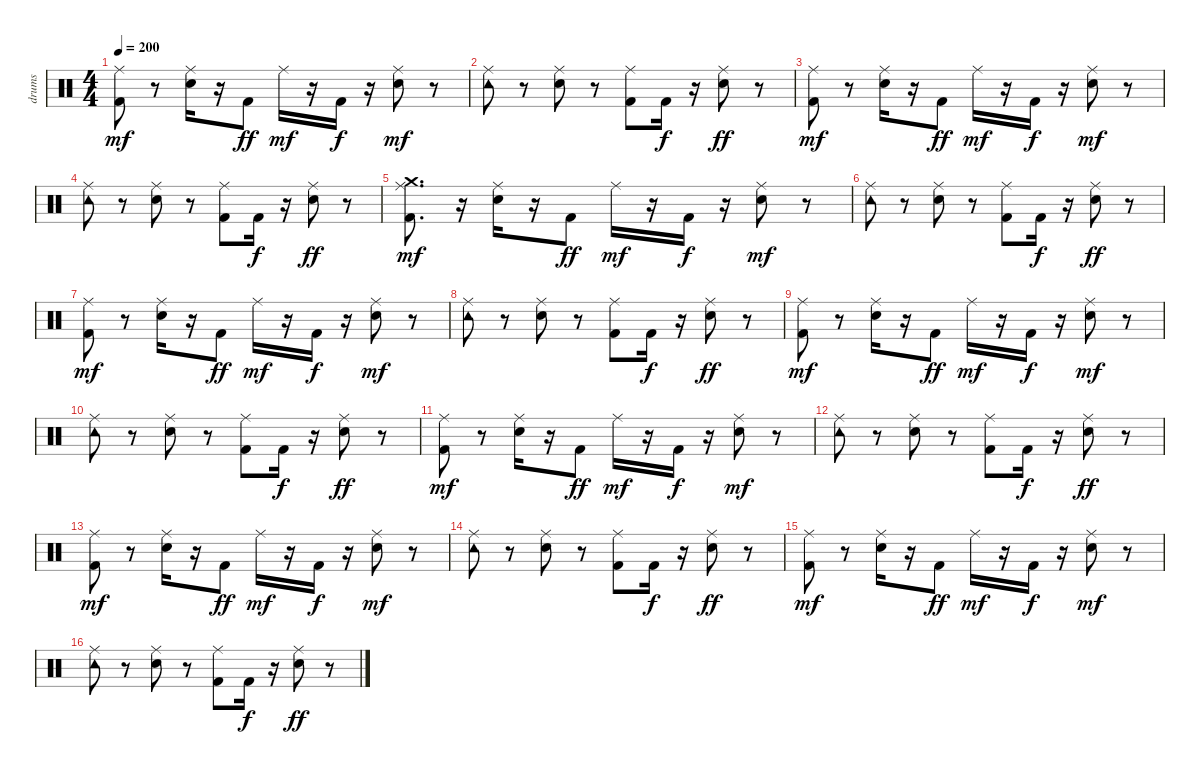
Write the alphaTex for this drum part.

\track ("drums" "drums") {instrument percussion}
\staff {score}
\articulation defaults
\ts (4 4)
\tempo 200
\clef neutral
\ks c
("Kick (hit) 2" "Ride (middle)").8{dy mf} r.8 ("Snare (hit) 2" "Ride (middle)").16 r.16 "Kick (hit) 2".8{dy ff} "Ride (middle)".16{dy mf} r.16 "Kick (hit) 2".16{dy f} r.16 ("Snare (hit) 2" "Ride (middle)").8{dy mf} r.8 |
("Tambourine (hit)" "Ride (middle)").8 r.8 ("Snare (hit) 2" "Ride (middle)").8 r.8 ("Kick (hit) 2" "Ride (middle)").8 "Kick (hit) 2".16{dy f} r.16 ("Snare (hit) 2" "Ride (middle)").8{dy ff} r.8 |
("Kick (hit) 2" "Ride (middle)").8{dy mf} r.8 ("Snare (hit) 2" "Ride (middle)").16 r.16 "Kick (hit) 2".8{dy ff} "Ride (middle)".16{dy mf} r.16 "Kick (hit) 2".16{dy f} r.16 ("Snare (hit) 2" "Ride (middle)").8{dy mf} r.8 |
("Tambourine (hit)" "Ride (middle)").8 r.8 ("Snare (hit) 2" "Ride (middle)").8 r.8 ("Kick (hit) 2" "Ride (middle)").8 "Kick (hit) 2".16{dy f} r.16 ("Snare (hit) 2" "Ride (middle)").8{dy ff} r.8 |
("Kick (hit) 2" "Ride (middle)" "Crash medium (hit)").8{d dy mf} r.16 ("Snare (hit) 2" "Ride (middle)").16 r.16 "Kick (hit) 2".8{dy ff} "Ride (middle)".16{dy mf} r.16 "Kick (hit) 2".16{dy f} r.16 ("Snare (hit) 2" "Ride (middle)").8{dy mf} r.8 |
("Tambourine (hit)" "Ride (middle)").8 r.8 ("Snare (hit) 2" "Ride (middle)").8 r.8 ("Kick (hit) 2" "Ride (middle)").8 "Kick (hit) 2".16{dy f} r.16 ("Snare (hit) 2" "Ride (middle)").8{dy ff} r.8 |
("Kick (hit) 2" "Ride (middle)").8{dy mf} r.8 ("Snare (hit) 2" "Ride (middle)").16 r.16 "Kick (hit) 2".8{dy ff} "Ride (middle)".16{dy mf} r.16 "Kick (hit) 2".16{dy f} r.16 ("Snare (hit) 2" "Ride (middle)").8{dy mf} r.8 |
("Tambourine (hit)" "Ride (middle)").8 r.8 ("Snare (hit) 2" "Ride (middle)").8 r.8 ("Kick (hit) 2" "Ride (middle)").8 "Kick (hit) 2".16{dy f} r.16 ("Snare (hit) 2" "Ride (middle)").8{dy ff} r.8 |
("Kick (hit) 2" "Ride (middle)").8{dy mf} r.8 ("Snare (hit) 2" "Ride (middle)").16 r.16 "Kick (hit) 2".8{dy ff} "Ride (middle)".16{dy mf} r.16 "Kick (hit) 2".16{dy f} r.16 ("Snare (hit) 2" "Ride (middle)").8{dy mf} r.8 |
("Tambourine (hit)" "Ride (middle)").8 r.8 ("Snare (hit) 2" "Ride (middle)").8 r.8 ("Kick (hit) 2" "Ride (middle)").8 "Kick (hit) 2".16{dy f} r.16 ("Snare (hit) 2" "Ride (middle)").8{dy ff} r.8 |
("Kick (hit) 2" "Ride (middle)").8{dy mf} r.8 ("Snare (hit) 2" "Ride (middle)").16 r.16 "Kick (hit) 2".8{dy ff} "Ride (middle)".16{dy mf} r.16 "Kick (hit) 2".16{dy f} r.16 ("Snare (hit) 2" "Ride (middle)").8{dy mf} r.8 |
("Tambourine (hit)" "Ride (middle)").8 r.8 ("Snare (hit) 2" "Ride (middle)").8 r.8 ("Kick (hit) 2" "Ride (middle)").8 "Kick (hit) 2".16{dy f} r.16 ("Snare (hit) 2" "Ride (middle)").8{dy ff} r.8 |
("Kick (hit) 2" "Ride (middle)").8{dy mf} r.8 ("Snare (hit) 2" "Ride (middle)").16 r.16 "Kick (hit) 2".8{dy ff} "Ride (middle)".16{dy mf} r.16 "Kick (hit) 2".16{dy f} r.16 ("Snare (hit) 2" "Ride (middle)").8{dy mf} r.8 |
("Tambourine (hit)" "Ride (middle)").8 r.8 ("Snare (hit) 2" "Ride (middle)").8 r.8 ("Kick (hit) 2" "Ride (middle)").8 "Kick (hit) 2".16{dy f} r.16 ("Snare (hit) 2" "Ride (middle)").8{dy ff} r.8 |
("Kick (hit) 2" "Ride (middle)").8{dy mf} r.8 ("Snare (hit) 2" "Ride (middle)").16 r.16 "Kick (hit) 2".8{dy ff} "Ride (middle)".16{dy mf} r.16 "Kick (hit) 2".16{dy f} r.16 ("Snare (hit) 2" "Ride (middle)").8{dy mf} r.8 |
("Tambourine (hit)" "Ride (middle)").8 r.8 ("Snare (hit) 2" "Ride (middle)").8 r.8 ("Kick (hit) 2" "Ride (middle)").8 "Kick (hit) 2".16{dy f} r.16 ("Snare (hit) 2" "Ride (middle)").8{dy ff} r.8
